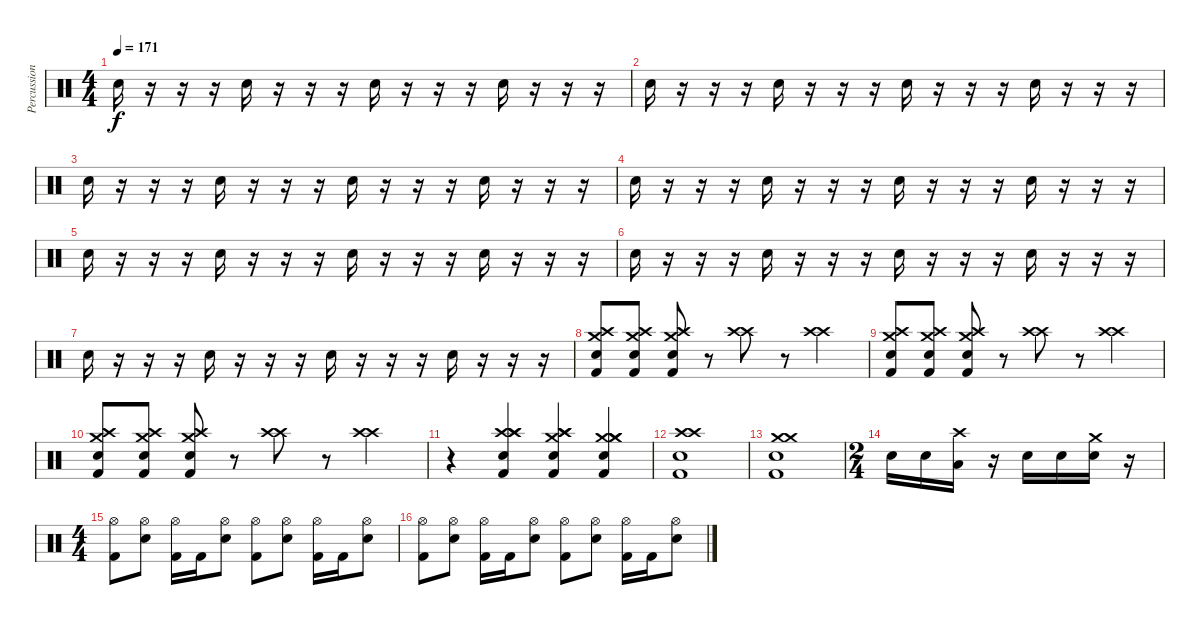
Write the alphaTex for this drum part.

\track ("Percussions" "Percussion") {instrument percussion}
\staff {score}
\articulation defaults
\ts (4 4)
\tempo 171
\clef neutral
\ks c "Electric Snare (hit)".16{dy f}
r.16 r.16 r.16 "Electric Snare (hit)".16 r.16 r.16 r.16 "Electric Snare (hit)".16 r.16 r.16 r.16 "Electric Snare (hit)".16 r.16 r.16 r.16 |
"Electric Snare (hit)".16 r.16 r.16 r.16 "Electric Snare (hit)".16 r.16 r.16 r.16 "Electric Snare (hit)".16 r.16 r.16 r.16 "Electric Snare (hit)".16 r.16 r.16 r.16 |
"Electric Snare (hit)".16 r.16 r.16 r.16 "Electric Snare (hit)".16 r.16 r.16 r.16 "Electric Snare (hit)".16 r.16 r.16 r.16 "Electric Snare (hit)".16 r.16 r.16 r.16 |
"Electric Snare (hit)".16 r.16 r.16 r.16 "Electric Snare (hit)".16 r.16 r.16 r.16 "Electric Snare (hit)".16 r.16 r.16 r.16 "Electric Snare (hit)".16 r.16 r.16 r.16 |
"Electric Snare (hit)".16 r.16 r.16 r.16 "Electric Snare (hit)".16 r.16 r.16 r.16 "Electric Snare (hit)".16 r.16 r.16 r.16 "Electric Snare (hit)".16 r.16 r.16 r.16 |
"Electric Snare (hit)".16 r.16 r.16 r.16 "Electric Snare (hit)".16 r.16 r.16 r.16 "Electric Snare (hit)".16 r.16 r.16 r.16 "Electric Snare (hit)".16 r.16 r.16 r.16 |
"Electric Snare (hit)".16 r.16 r.16 r.16 "Electric Snare (hit)".16 r.16 r.16 r.16 "Electric Snare (hit)".16 r.16 r.16 r.16 "Electric Snare (hit)".16 r.16 r.16 r.16 |
("Crash medium (hit)" "Crash high (hit)" "Electric Snare (hit)" "Kick (hit) 2").8 ("Crash medium (hit)" "Crash high (hit)" "Electric Snare (hit)" "Kick (hit) 2").8 ("Crash medium (hit)" "Crash high (hit)" "Electric Snare (hit)" "Kick (hit) 2").8 r.8 ("Crash high (hit)" "Crash high (hit)").8 r.8 ("Crash high (hit)" "Crash high (hit)").4 |
("Crash medium (hit)" "Crash high (hit)" "Electric Snare (hit)" "Kick (hit) 2").8 ("Crash medium (hit)" "Crash high (hit)" "Electric Snare (hit)" "Kick (hit) 2").8 ("Crash medium (hit)" "Crash high (hit)" "Electric Snare (hit)" "Kick (hit) 2").8 r.8 ("Crash high (hit)" "Crash high (hit)").8 r.8 ("Crash high (hit)" "Crash high (hit)").4 |
("Crash medium (hit)" "Crash high (hit)" "Electric Snare (hit)" "Kick (hit) 2").8 ("Crash medium (hit)" "Crash high (hit)" "Electric Snare (hit)" "Kick (hit) 2").8 ("Crash medium (hit)" "Crash high (hit)" "Electric Snare (hit)" "Kick (hit) 2").8 r.8 ("Crash high (hit)" "Crash high (hit)").8 r.8 ("Crash high (hit)" "Crash high (hit)").4 |
r.4 ("Crash high (hit)" "Crash high (hit)" "Crash high (hit)" "Electric Snare (hit)" "Kick (hit) 2").4 ("Crash high (hit)" "Crash high (hit)" "Crash medium (hit)" "Electric Snare (hit)" "Kick (hit) 2").4 ("Crash medium (hit)" "Crash medium (hit)" "Crash medium (hit)" "Electric Snare (hit)" "Kick (hit) 2").4 |
("Crash high (hit)" "Crash high (hit)" "Electric Snare (hit)" "Kick (hit) 2").1 |
("Crash medium (hit)" "Crash medium (hit)" "Electric Snare (hit)" "Kick (hit) 2").1 |
\ts (2 4)
"Electric Snare (hit)".16 "Electric Snare (hit)".16 ("Crash high (hit)" "Low Floor Tom (hit)").16 r.16 "Electric Snare (hit)".16 "Electric Snare (hit)".16 ("Crash medium (hit)" "Electric Snare (hit)").16 r.16 |
\ts (4 4)
("Hi-Hat (open)" "Kick (hit) 2").8 ("Hi-Hat (open)" "Electric Snare (hit)").8 ("Hi-Hat (open)" "Kick (hit) 2").16 "Kick (hit) 2".16 ("Hi-Hat (open)" "Electric Snare (hit)").8 ("Hi-Hat (open)" "Kick (hit) 2").8 ("Hi-Hat (open)" "Electric Snare (hit)").8 ("Hi-Hat (open)" "Kick (hit) 2").16 "Kick (hit) 2".16 ("Hi-Hat (open)" "Electric Snare (hit)").8 |
("Hi-Hat (open)" "Kick (hit) 2").8 ("Hi-Hat (open)" "Electric Snare (hit)").8 ("Hi-Hat (open)" "Kick (hit) 2").16 "Kick (hit) 2".16 ("Hi-Hat (open)" "Electric Snare (hit)").8 ("Hi-Hat (open)" "Kick (hit) 2").8 ("Hi-Hat (open)" "Electric Snare (hit)").8 ("Hi-Hat (open)" "Kick (hit) 2").16 "Kick (hit) 2".16 ("Hi-Hat (open)" "Electric Snare (hit)").8
